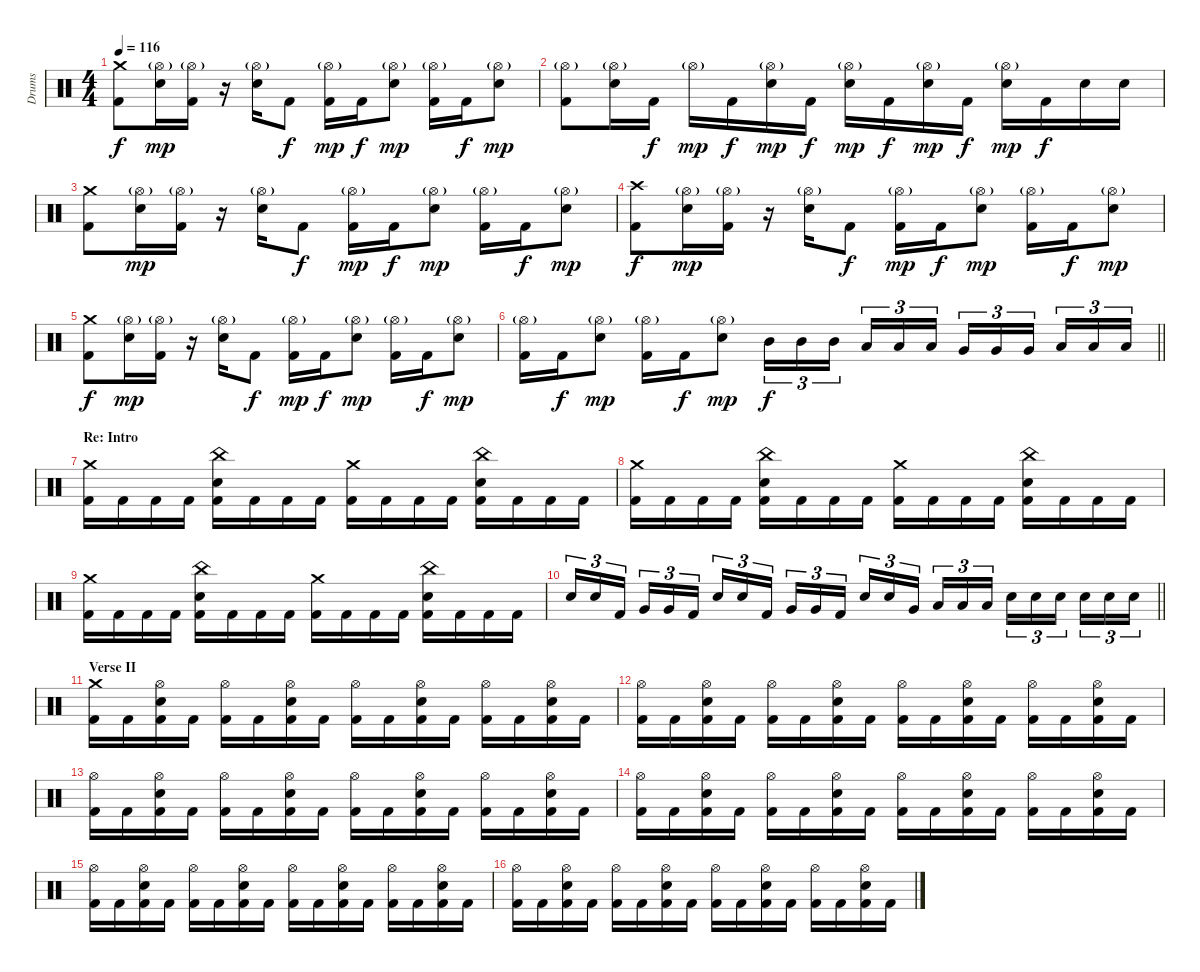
\track ("Drums" "Drums") {instrument percussion}
\staff {score}
\articulation defaults
\ts (4 4)
\tempo 116
\clef neutral
\ks c
("Crash medium (hit)" "Kick (hit) 2").8{dy f} ("Hi-Hat (open)"{g} "Electric Snare (hit)").16{dy mp} ("Hi-Hat (open)"{g} "Kick (hit) 2").16 r.16 ("Hi-Hat (open)"{g} "Electric Snare (hit)").16 "Kick (hit) 2".8{dy f} ("Hi-Hat (open)"{g} "Kick (hit) 2").16{dy mp} "Kick (hit) 2".16{dy f} ("Hi-Hat (open)"{g} "Electric Snare (hit)").8{dy mp} ("Hi-Hat (open)"{g} "Kick (hit) 2").16 "Kick (hit) 2".16{dy f} ("Hi-Hat (open)"{g} "Electric Snare (hit)").8{dy mp} |
("Hi-Hat (open)"{g} "Kick (hit) 2").8 ("Hi-Hat (open)"{g} "Electric Snare (hit)").16 "Kick (hit) 2".16{dy f} "Hi-Hat (open)"{g}.16{dy mp} "Kick (hit) 2".16{dy f} ("Hi-Hat (open)"{g} "Electric Snare (hit)").16{dy mp} "Kick (hit) 2".16{dy f} ("Hi-Hat (open)"{g} "Electric Snare (hit)").16{dy mp} "Kick (hit) 2".16{dy f} ("Hi-Hat (open)"{g} "Electric Snare (hit)").16{dy mp} "Kick (hit) 2".16{dy f} ("Hi-Hat (open)"{g} "Electric Snare (hit)").16{dy mp} "Kick (hit) 2".16{dy f} "Electric Snare (hit)".16 "Electric Snare (hit)".16 |
("Crash medium (hit)" "Kick (hit) 2").8 ("Hi-Hat (open)"{g} "Electric Snare (hit)").16{dy mp} ("Hi-Hat (open)"{g} "Kick (hit) 2").16 r.16 ("Hi-Hat (open)"{g} "Electric Snare (hit)").16 "Kick (hit) 2".8{dy f} ("Hi-Hat (open)"{g} "Kick (hit) 2").16{dy mp} "Kick (hit) 2".16{dy f} ("Hi-Hat (open)"{g} "Electric Snare (hit)").8{dy mp} ("Hi-Hat (open)"{g} "Kick (hit) 2").16 "Kick (hit) 2".16{dy f} ("Hi-Hat (open)"{g} "Electric Snare (hit)").8{dy mp} |
("Crash high (hit)" "Kick (hit) 2").8{dy f} ("Hi-Hat (open)"{g} "Electric Snare (hit)").16{dy mp} ("Hi-Hat (open)"{g} "Kick (hit) 2").16 r.16 ("Hi-Hat (open)"{g} "Electric Snare (hit)").16 "Kick (hit) 2".8{dy f} ("Hi-Hat (open)"{g} "Kick (hit) 2").16{dy mp} "Kick (hit) 2".16{dy f} ("Hi-Hat (open)"{g} "Electric Snare (hit)").8{dy mp} ("Hi-Hat (open)"{g} "Kick (hit) 2").16 "Kick (hit) 2".16{dy f} ("Hi-Hat (open)"{g} "Electric Snare (hit)").8{dy mp} |
("Crash medium (hit)" "Kick (hit) 2").8{dy f} ("Hi-Hat (open)"{g} "Electric Snare (hit)").16{dy mp} ("Hi-Hat (open)"{g} "Kick (hit) 2").16 r.16 ("Hi-Hat (open)"{g} "Electric Snare (hit)").16 "Kick (hit) 2".8{dy f} ("Hi-Hat (open)"{g} "Kick (hit) 2").16{dy mp} "Kick (hit) 2".16{dy f} ("Hi-Hat (open)"{g} "Electric Snare (hit)").8{dy mp} ("Hi-Hat (open)"{g} "Kick (hit) 2").16 "Kick (hit) 2".16{dy f} ("Hi-Hat (open)"{g} "Electric Snare (hit)").8{dy mp} |
\barLineRight lightlight
("Hi-Hat (open)"{g} "Kick (hit) 2").16 "Kick (hit) 2".16{dy f} ("Hi-Hat (open)"{g} "Electric Snare (hit)").8{dy mp} ("Hi-Hat (open)"{g} "Kick (hit) 2").16 "Kick (hit) 2".16{dy f} ("Hi-Hat (open)"{g} "Electric Snare (hit)").8{dy mp} "Mid Tom (hit)".16{tu (3 2) dy f} "Mid Tom (hit)".16{tu (3 2)} "Mid Tom (hit)".16{tu (3 2) beam splitsecondary} "Low Tom (hit)".16{tu (3 2)} "Low Tom (hit)".16{tu (3 2)} "Low Tom (hit)".16{tu (3 2)} "Very Low Tom (hit)".16{tu (3 2)} "Very Low Tom (hit)".16{tu (3 2)} "Very Low Tom (hit)".16{tu (3 2) beam splitsecondary} "Low Floor Tom (hit)".16{tu (3 2)} "Low Floor Tom (hit)".16{tu (3 2)} "Low Floor Tom (hit)".16{tu (3 2)} |
\section ("" "Re: Intro")
("Crash medium (hit)" "Kick (hit) 2").16 "Kick (hit) 2".16 "Kick (hit) 2".16 "Kick (hit) 2".16 ("China (hit)" "Kick (hit) 2" "Electric Snare (hit)").16 "Kick (hit) 2".16 "Kick (hit) 2".16 "Kick (hit) 2".16 ("Crash medium (hit)" "Kick (hit) 2").16 "Kick (hit) 2".16 "Kick (hit) 2".16 "Kick (hit) 2".16 ("China (hit)" "Kick (hit) 2" "Electric Snare (hit)").16 "Kick (hit) 2".16 "Kick (hit) 2".16 "Kick (hit) 2".16 |
("Crash medium (hit)" "Kick (hit) 2").16 "Kick (hit) 2".16 "Kick (hit) 2".16 "Kick (hit) 2".16 ("China (hit)" "Kick (hit) 2" "Electric Snare (hit)").16 "Kick (hit) 2".16 "Kick (hit) 2".16 "Kick (hit) 2".16 ("Crash medium (hit)" "Kick (hit) 2").16 "Kick (hit) 2".16 "Kick (hit) 2".16 "Kick (hit) 2".16 ("China (hit)" "Kick (hit) 2" "Electric Snare (hit)").16 "Kick (hit) 2".16 "Kick (hit) 2".16 "Kick (hit) 2".16 |
("Crash medium (hit)" "Kick (hit) 2").16 "Kick (hit) 2".16 "Kick (hit) 2".16 "Kick (hit) 2".16 ("China (hit)" "Kick (hit) 2" "Electric Snare (hit)").16 "Kick (hit) 2".16 "Kick (hit) 2".16 "Kick (hit) 2".16 ("Crash medium (hit)" "Kick (hit) 2").16 "Kick (hit) 2".16 "Kick (hit) 2".16 "Kick (hit) 2".16 ("China (hit)" "Kick (hit) 2" "Electric Snare (hit)").16 "Kick (hit) 2".16 "Kick (hit) 2".16 "Kick (hit) 2".16 |
\barLineRight lightlight "Electric Snare (hit)".16{tu (3 2)} "Electric Snare (hit)".16{tu (3 2)} "Kick (hit) 2".16{tu (3 2) beam splitsecondary} "Very Low Tom (hit)".16{tu (3 2)} "Very Low Tom (hit)".16{tu (3 2)} "Kick (hit) 2".16{tu (3 2)} "Electric Snare (hit)".16{tu (3 2)} "Electric Snare (hit)".16{tu (3 2)} "Kick (hit) 2".16{tu (3 2) beam splitsecondary} "Very Low Tom (hit)".16{tu (3 2)} "Very Low Tom (hit)".16{tu (3 2)} "Kick (hit) 2".16{tu (3 2)} "Electric Snare (hit)".16{tu (3 2)} "Electric Snare (hit)".16{tu (3 2)} "Very Low Tom (hit)".16{tu (3 2) beam splitsecondary} "Low Floor Tom (hit)".16{tu (3 2)} "Low Floor Tom (hit)".16{tu (3 2)} "Low Floor Tom (hit)".16{tu (3 2)} "Electric Snare (hit)".16{tu (3 2)} "Electric Snare (hit)".16{tu (3 2)} "Electric Snare (hit)".16{tu (3 2) beam splitsecondary} "Electric Snare (hit)".16{tu (3 2)} "Electric Snare (hit)".16{tu (3 2)} "Electric Snare (hit)".16{tu (3 2)}
|
\section ("" "Verse II")
("Crash medium (hit)" "Kick (hit) 2").16 "Kick (hit) 2".16 ("Hi-Hat (open)" "Kick (hit) 2" "Electric Snare (hit)").16 "Kick (hit) 2".16 ("Hi-Hat (open)" "Kick (hit) 2").16 "Kick (hit) 2".16 ("Hi-Hat (open)" "Kick (hit) 2" "Electric Snare (hit)").16 "Kick (hit) 2".16 ("Hi-Hat (open)" "Kick (hit) 2").16 "Kick (hit) 2".16 ("Hi-Hat (open)" "Kick (hit) 2" "Electric Snare (hit)").16 "Kick (hit) 2".16 ("Hi-Hat (open)" "Kick (hit) 2").16 "Kick (hit) 2".16 ("Hi-Hat (open)" "Kick (hit) 2" "Electric Snare (hit)").16 "Kick (hit) 2".16 |
("Hi-Hat (open)" "Kick (hit) 2").16 "Kick (hit) 2".16 ("Hi-Hat (open)" "Kick (hit) 2" "Electric Snare (hit)").16 "Kick (hit) 2".16 ("Hi-Hat (open)" "Kick (hit) 2").16 "Kick (hit) 2".16 ("Hi-Hat (open)" "Kick (hit) 2" "Electric Snare (hit)").16 "Kick (hit) 2".16 ("Hi-Hat (open)" "Kick (hit) 2").16 "Kick (hit) 2".16 ("Hi-Hat (open)" "Kick (hit) 2" "Electric Snare (hit)").16 "Kick (hit) 2".16 ("Hi-Hat (open)" "Kick (hit) 2").16 "Kick (hit) 2".16 ("Hi-Hat (open)" "Kick (hit) 2" "Electric Snare (hit)").16 "Kick (hit) 2".16 |
("Hi-Hat (open)" "Kick (hit) 2").16 "Kick (hit) 2".16 ("Hi-Hat (open)" "Kick (hit) 2" "Electric Snare (hit)").16 "Kick (hit) 2".16 ("Hi-Hat (open)" "Kick (hit) 2").16 "Kick (hit) 2".16 ("Hi-Hat (open)" "Kick (hit) 2" "Electric Snare (hit)").16 "Kick (hit) 2".16 ("Hi-Hat (open)" "Kick (hit) 2").16 "Kick (hit) 2".16 ("Hi-Hat (open)" "Kick (hit) 2" "Electric Snare (hit)").16 "Kick (hit) 2".16 ("Hi-Hat (open)" "Kick (hit) 2").16 "Kick (hit) 2".16 ("Hi-Hat (open)" "Kick (hit) 2" "Electric Snare (hit)").16 "Kick (hit) 2".16 |
("Hi-Hat (open)" "Kick (hit) 2").16 "Kick (hit) 2".16 ("Hi-Hat (open)" "Kick (hit) 2" "Electric Snare (hit)").16 "Kick (hit) 2".16 ("Hi-Hat (open)" "Kick (hit) 2").16 "Kick (hit) 2".16 ("Hi-Hat (open)" "Kick (hit) 2" "Electric Snare (hit)").16 "Kick (hit) 2".16 ("Hi-Hat (open)" "Kick (hit) 2").16 "Kick (hit) 2".16 ("Hi-Hat (open)" "Kick (hit) 2" "Electric Snare (hit)").16 "Kick (hit) 2".16 ("Hi-Hat (open)" "Kick (hit) 2").16 "Kick (hit) 2".16 ("Hi-Hat (open)" "Kick (hit) 2" "Electric Snare (hit)").16 "Kick (hit) 2".16 |
("Hi-Hat (open)" "Kick (hit) 2").16 "Kick (hit) 2".16 ("Hi-Hat (open)" "Kick (hit) 2" "Electric Snare (hit)").16 "Kick (hit) 2".16 ("Hi-Hat (open)" "Kick (hit) 2").16 "Kick (hit) 2".16 ("Hi-Hat (open)" "Kick (hit) 2" "Electric Snare (hit)").16 "Kick (hit) 2".16 ("Hi-Hat (open)" "Kick (hit) 2").16 "Kick (hit) 2".16 ("Hi-Hat (open)" "Kick (hit) 2" "Electric Snare (hit)").16 "Kick (hit) 2".16 ("Hi-Hat (open)" "Kick (hit) 2").16 "Kick (hit) 2".16 ("Hi-Hat (open)" "Kick (hit) 2" "Electric Snare (hit)").16 "Kick (hit) 2".16 |
("Hi-Hat (open)" "Kick (hit) 2").16 "Kick (hit) 2".16 ("Hi-Hat (open)" "Kick (hit) 2" "Electric Snare (hit)").16 "Kick (hit) 2".16 ("Hi-Hat (open)" "Kick (hit) 2").16 "Kick (hit) 2".16 ("Hi-Hat (open)" "Kick (hit) 2" "Electric Snare (hit)").16 "Kick (hit) 2".16 ("Hi-Hat (open)" "Kick (hit) 2").16 "Kick (hit) 2".16 ("Hi-Hat (open)" "Kick (hit) 2" "Electric Snare (hit)").16 "Kick (hit) 2".16 ("Hi-Hat (open)" "Kick (hit) 2").16 "Kick (hit) 2".16 ("Hi-Hat (open)" "Kick (hit) 2" "Electric Snare (hit)").16 "Kick (hit) 2".16
